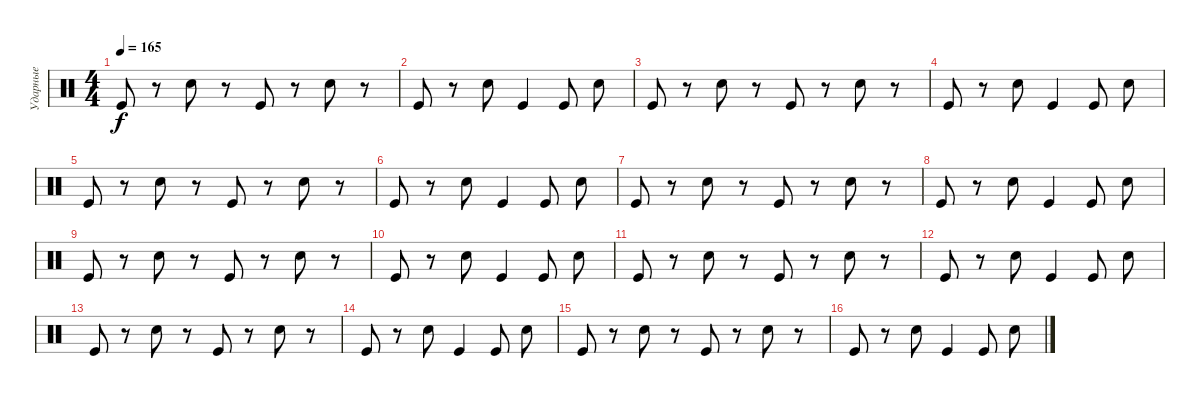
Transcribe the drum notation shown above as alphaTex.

\track ("Ударные" "Ударные") {instrument percussion}
\staff {score}
\articulation defaults
\ts (4 4)
\tempo 165
\clef neutral
\ks c "Kick (hit)".8{dy f}
r.8 "Snare (hit) 2".8 r.8 "Kick (hit)".8 r.8 "Snare (hit) 2".8 r.8 |
"Kick (hit)".8 r.8 "Snare (hit) 2".8 "Kick (hit)".4 "Kick (hit)".8 "Snare (hit) 2".8 |
"Kick (hit)".8 r.8 "Snare (hit) 2".8 r.8 "Kick (hit)".8 r.8 "Snare (hit) 2".8 r.8 |
"Kick (hit)".8 r.8 "Snare (hit) 2".8 "Kick (hit)".4 "Kick (hit)".8 "Snare (hit) 2".8 |
"Kick (hit)".8 r.8 "Snare (hit) 2".8 r.8 "Kick (hit)".8 r.8 "Snare (hit) 2".8 r.8 |
"Kick (hit)".8 r.8 "Snare (hit) 2".8 "Kick (hit)".4 "Kick (hit)".8 "Snare (hit) 2".8 |
"Kick (hit)".8 r.8 "Snare (hit) 2".8 r.8 "Kick (hit)".8 r.8 "Snare (hit) 2".8 r.8 |
"Kick (hit)".8 r.8 "Snare (hit) 2".8 "Kick (hit)".4 "Kick (hit)".8 "Snare (hit) 2".8 |
"Kick (hit)".8 r.8 "Snare (hit) 2".8 r.8 "Kick (hit)".8 r.8 "Snare (hit) 2".8 r.8 |
"Kick (hit)".8 r.8 "Snare (hit) 2".8 "Kick (hit)".4 "Kick (hit)".8 "Snare (hit) 2".8 |
"Kick (hit)".8 r.8 "Snare (hit) 2".8 r.8 "Kick (hit)".8 r.8 "Snare (hit) 2".8 r.8 |
"Kick (hit)".8 r.8 "Snare (hit) 2".8 "Kick (hit)".4 "Kick (hit)".8 "Snare (hit) 2".8 |
"Kick (hit)".8 r.8 "Snare (hit) 2".8 r.8 "Kick (hit)".8 r.8 "Snare (hit) 2".8 r.8 |
"Kick (hit)".8 r.8 "Snare (hit) 2".8 "Kick (hit)".4 "Kick (hit)".8 "Snare (hit) 2".8 |
"Kick (hit)".8 r.8 "Snare (hit) 2".8 r.8 "Kick (hit)".8 r.8 "Snare (hit) 2".8 r.8 |
"Kick (hit)".8 r.8 "Snare (hit) 2".8 "Kick (hit)".4 "Kick (hit)".8 "Snare (hit) 2".8
